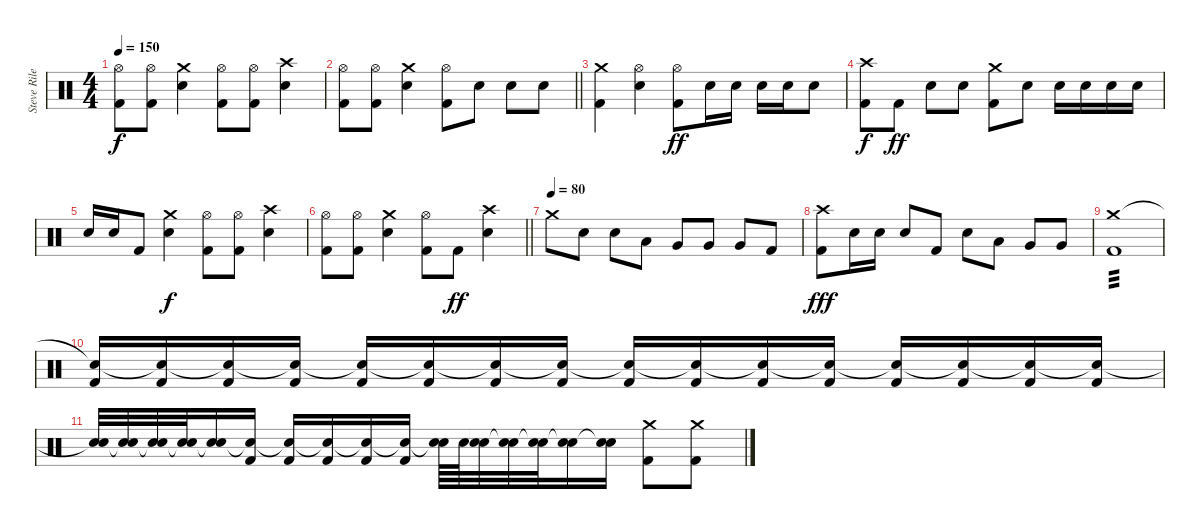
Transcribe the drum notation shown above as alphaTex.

\track ("Steve Riley" "Steve Rile") {instrument percussion}
\staff {score}
\articulation defaults
\ts (4 4)
\tempo 150
\clef neutral
\ks c
("Hi-Hat (open)" "Kick (hit) 2").8{dy f} ("Hi-Hat (open)" "Kick (hit) 2").8 ("Crash medium (hit)" "Snare (hit) 2").4 ("Hi-Hat (open)" "Kick (hit) 2").8 ("Hi-Hat (open)" "Kick (hit) 2").8 ("Crash high (hit)" "Snare (hit) 2").4 |
\barLineRight lightlight
("Hi-Hat (open)" "Kick (hit) 2").8 ("Hi-Hat (open)" "Kick (hit) 2").8 ("Crash medium (hit)" "Snare (hit) 2").4 ("Hi-Hat (open)" "Kick (hit) 2").8 "Snare (hit) 2".8 "Snare (hit) 2".8 "Snare (hit) 2".8 |
("Crash medium (hit)" "Kick (hit) 2").4 ("Hi-Hat (open)" "Snare (hit) 2").4 ("Hi-Hat (open)" "Kick (hit) 2").8{dy ff} "Snare (hit) 2".16 "Snare (hit) 2".16 "Snare (hit) 2".16 "Snare (hit) 2".16 "Snare (hit) 2".8 |
("Crash high (hit)" "Kick (hit) 2").8{dy f} "Kick (hit) 2".8{dy ff} "Snare (hit) 2".8 "Snare (hit) 2".8 ("Crash medium (hit)" "Kick (hit) 2").8 "Snare (hit) 2".8 "Snare (hit) 2".16 "Snare (hit) 2".16 "Snare (hit) 2".16 "Snare (hit) 2".16 |
"Snare (hit) 2".16 "Snare (hit) 2".16 "Kick (hit) 2".8 ("Crash medium (hit)" "Snare (hit) 2").4{dy f} ("Hi-Hat (open)" "Kick (hit) 2").8 ("Hi-Hat (open)" "Kick (hit) 2").8 ("Crash high (hit)" "Snare (hit) 2").4 |
\barLineRight lightlight
("Hi-Hat (open)" "Kick (hit) 2").8 ("Hi-Hat (open)" "Kick (hit) 2").8 ("Crash medium (hit)" "Snare (hit) 2").4 ("Hi-Hat (open)" "Kick (hit) 2").8 "Kick (hit) 2".8{dy ff} ("Crash high (hit)" "Snare (hit) 2").4 |
\tempo (80)
"Crash medium (hit)".8 "Snare (hit) 2".8 "Snare (hit) 2".8 "Low Tom (hit)".8 "Very Low Tom (hit)".8 "Very Low Tom (hit)".8 "Very Low Tom (hit)".8 "Kick (hit) 2".8 |
("Crash high (hit)" "Kick (hit) 2").8{dy fff} "Snare (hit) 2".16 "Snare (hit) 2".16 "Snare (hit) 2".8 "Kick (hit) 2".8 "Snare (hit) 2".8 "Low Tom (hit)".8 "Very Low Tom (hit)".8 "Very Low Tom (hit)".8 |
("Crash medium (hit)" "Kick (hit) 2").1{tp 3} |
("Snare (hit)"{t} "Kick (hit) 2").16 ("Snare (hit)"{t} "Kick (hit) 2").16 ("Snare (hit)"{t} "Kick (hit) 2").16 ("Snare (hit)"{t} "Kick (hit) 2").16 ("Snare (hit)"{t} "Kick (hit) 2").16 ("Snare (hit)"{t} "Kick (hit) 2").16 ("Snare (hit)"{t} "Kick (hit) 2").16 ("Snare (hit)"{t} "Kick (hit) 2").16 ("Snare (hit)"{t} "Kick (hit) 2").16 ("Snare (hit)"{t} "Kick (hit) 2").16 ("Snare (hit)"{t} "Kick (hit) 2").16 ("Snare (hit)"{t} "Kick (hit) 2").16 ("Snare (hit)"{t} "Kick (hit) 2").16 ("Snare (hit)"{t} "Kick (hit) 2").16 ("Snare (hit)"{t} "Kick (hit) 2").16 ("Snare (hit)"{t} "Kick (hit) 2").16 |
("Snare (hit)"{t} "Snare (hit) 2").32 ("Snare (hit)"{t} "Snare (hit) 2").32 ("Snare (hit)"{t} "Snare (hit) 2").32 ("Snare (hit)"{t} "Snare (hit) 2").32 ("Snare (hit)"{t} "Snare (hit) 2").16 ("Snare (hit)"{t} "Kick (hit) 2").16 ("Snare (hit)"{t} "Kick (hit) 2").16 ("Snare (hit)"{t} "Kick (hit) 2").16 ("Snare (hit)"{t} "Kick (hit) 2").16 ("Snare (hit)"{t} "Kick (hit) 2").16 ("Snare (hit)"{t} "Snare (hit) 2").64 "Snare (hit) 2".64 ("Snare (hit)"{t} "Snare (hit) 2").32 ("Snare (hit)"{t} "Snare (hit) 2").32 ("Snare (hit)"{t} "Snare (hit) 2").32 ("Snare (hit)"{t} "Snare (hit) 2").16 ("Snare (hit)"{t} "Snare (hit) 2").16 ("Crash medium (hit)" "Kick (hit) 2").8 ("Crash medium (hit)" "Kick (hit) 2").8
